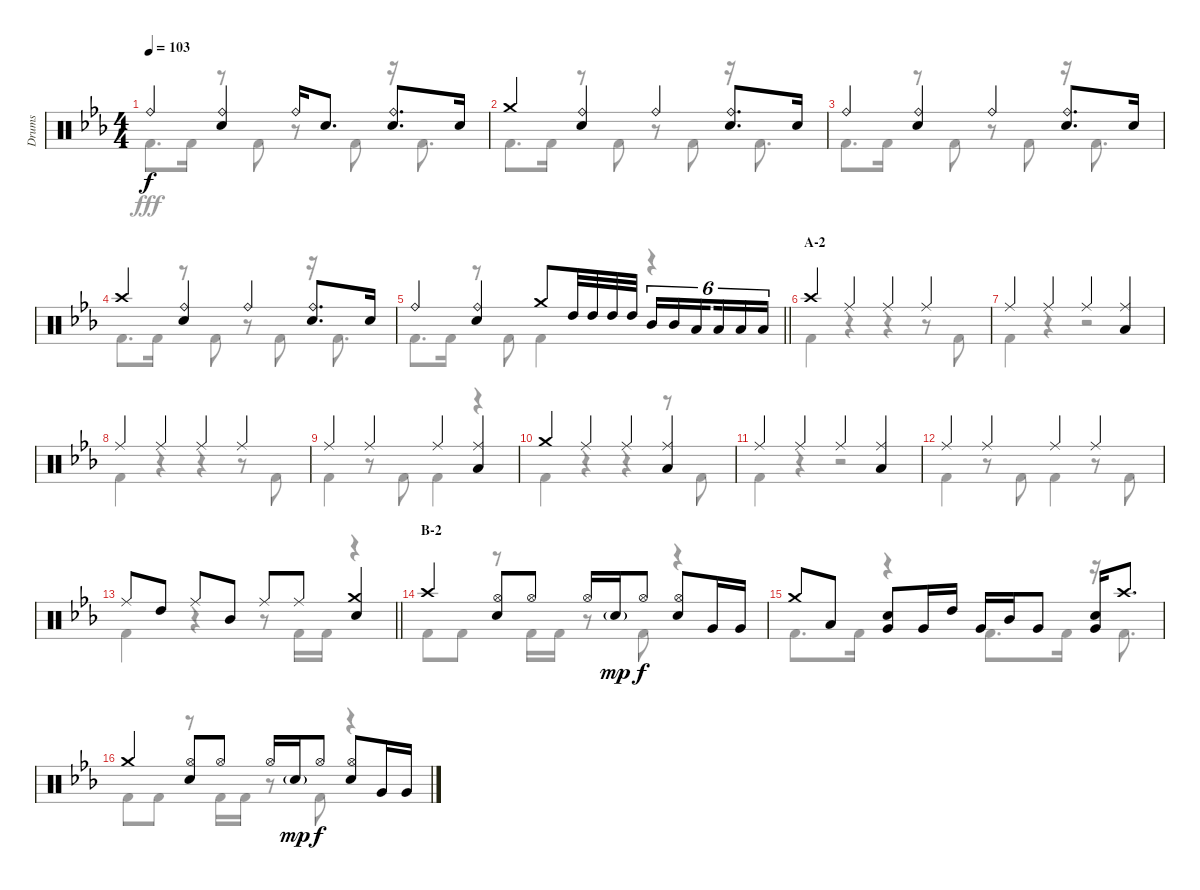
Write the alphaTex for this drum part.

\track ("Drums" "Drums") {instrument percussion}
\staff {score}
\articulation defaults
\voice
\ts (4 4)
\tempo 103
\clef neutral
\ks eb "Ride (bell)".4{dy f}
("Ride (bell)" "Snare (hit) 2").4 "Ride (bell)".16 "Snare (hit) 2".8{d} ("Ride (bell)" "Snare (hit) 2").8{d} "Snare (hit) 2".16 |
"Crash medium (hit)".4 ("Ride (bell)" "Snare (hit) 2").4 "Ride (bell)".4 ("Ride (bell)" "Snare (hit) 2").8{d} "Snare (hit) 2".16 |
"Ride (bell)".4 ("Ride (bell)" "Snare (hit) 2").4 "Ride (bell)".4 ("Ride (bell)" "Snare (hit) 2").8{d} "Snare (hit) 2".16 |
"Crash high (hit)".4 ("Ride (bell)" "Snare (hit) 2").4 "Ride (bell)".4 ("Ride (bell)" "Snare (hit) 2").8{d} "Snare (hit) 2".16 |
\barLineRight lightlight "Ride (bell)".4
("Ride (bell)" "Snare (hit) 2").4 "Crash medium (hit)".8 "High Tom (hit)".32 "High Tom (hit)".32 "High Tom (hit)".32 "High Tom (hit)".32 "Mid Tom (hit)".16{tu (6 4)} "Mid Tom (hit)".16{tu (6 4)} "Low Tom (hit)".16{tu (6 4) beam splitsecondary} "Low Tom (hit)".16{tu (6 4)} "Low Tom (hit)".16{tu (6 4)} "Low Tom (hit)".16{tu (6 4)} |
\section ("" "A-2")
"Crash high (hit)".4 "Ride (middle)".4 "Ride (middle)".4 "Ride (middle)".4 |
"Ride (middle)".4 "Ride (middle)".4 "Ride (middle)".4 ("Ride (middle)" "Low Tom (hit)").4 |
"Ride (middle)".4 "Ride (middle)".4 "Ride (middle)".4 "Ride (middle)".4 |
"Ride (middle)".4 "Ride (middle)".4 "Ride (middle)".4 ("Ride (middle)" "Low Tom (hit)").4 |
"Crash medium (hit)".4 "Ride (middle)".4 "Ride (middle)".4 ("Ride (middle)" "Low Tom (hit)").4 |
"Ride (middle)".4 "Ride (middle)".4 "Ride (middle)".4 ("Ride (middle)" "Low Tom (hit)").4 |
"Ride (middle)".4 "Ride (middle)".4 "Ride (middle)".4 "Ride (middle)".4 |
\barLineRight lightlight "Ride (middle)".8 "High Tom (hit)".8 "Ride (middle)".8 "Mid Tom (hit)".8 "Ride (middle)".8 "Ride (middle)".8
("Crash medium (hit)" "Snare (hit) 2").4 |
\section ("" "B-2")
"Crash high (hit)".4 ("Hi-Hat (open)" "Snare (hit) 2").8 "Hi-Hat (open)".8 "Hi-Hat (open)".16 "Snare (hit) 2"{g}.16{dy mp} "Hi-Hat (open)".8{dy f} ("Hi-Hat (open)" "Snare (hit) 2").8 "Very Low Tom (hit)".16 "Very Low Tom (hit)".16 |
"Crash medium (hit)".8 "Low Tom (hit)".8 ("Snare (hit) 2" "Very Low Tom (hit)").8 "Very Low Tom (hit)".16 "High Tom (hit)".16 "Very Low Tom (hit)".16 "Mid Tom (hit)".16 "Very Low Tom (hit)".8 ("Snare (hit) 2" "Very Low Tom (hit)").16 "Crash high (hit)".8{d} |
"Crash medium (hit)".4 ("Hi-Hat (open)" "Snare (hit) 2").8 "Hi-Hat (open)".8 "Hi-Hat (open)".16 "Snare (hit) 2"{g}.16{dy mp} "Hi-Hat (open)".8{dy f} ("Hi-Hat (open)" "Snare (hit) 2").8 "Very Low Tom (hit)".16 "Very Low Tom (hit)".16
\voice
\clef neutral
\ottava regular
\simile none
\ks eb "Kick (hit) 2".8{d dy fff} "Kick (hit) 2".16
r.8 "Kick (hit) 2".8 r.8 "Kick (hit) 2".8 r.16 "Kick (hit) 2".8{d} |
"Kick (hit) 2".8{d} "Kick (hit) 2".16 r.8 "Kick (hit) 2".8 r.8 "Kick (hit) 2".8 r.16 "Kick (hit) 2".8{d} |
"Kick (hit) 2".8{d} "Kick (hit) 2".16 r.8 "Kick (hit) 2".8 r.8 "Kick (hit) 2".8 r.16 "Kick (hit) 2".8{d} |
"Kick (hit) 2".8{d} "Kick (hit) 2".16 r.8 "Kick (hit) 2".8 r.8 "Kick (hit) 2".8 r.16 "Kick (hit) 2".8{d} |
\barLineRight lightlight "Kick (hit) 2".8{d} "Kick (hit) 2".16
r.8 "Kick (hit) 2".8 "Kick (hit) 2".4 r.4 |
"Kick (hit) 2".4 r.4 r.4 r.8 "Kick (hit) 2".8 |
"Kick (hit) 2".4 r.4 r.2 |
"Kick (hit) 2".4 r.4 r.4 r.8 "Kick (hit) 2".8 |
"Kick (hit) 2".4 r.8 "Kick (hit) 2".8 "Kick (hit) 2".4 r.4 |
"Kick (hit) 2".4 r.4 r.4 r.8 "Kick (hit) 2".8 |
"Kick (hit) 2".4 r.4 r.2 |
"Kick (hit) 2".4 r.8 "Kick (hit) 2".8 "Kick (hit) 2".4 r.8 "Kick (hit) 2".8 |
\barLineRight lightlight "Kick (hit) 2".4
r.4 r.8 "Kick (hit) 2".16 "Kick (hit) 2".16 r.4 |
"Kick (hit) 2".8 "Kick (hit) 2".8 r.8 "Kick (hit) 2".16 "Kick (hit) 2".16 r.8 "Kick (hit) 2".8 r.4 |
"Kick (hit) 2".8{d} "Kick (hit) 2".16 r.4 "Kick (hit) 2".8{d} "Kick (hit) 2".16 r.16 "Kick (hit) 2".8{d} |
"Kick (hit) 2".8 "Kick (hit) 2".8 r.8 "Kick (hit) 2".16 "Kick (hit) 2".16 r.8 "Kick (hit) 2".8 r.4
